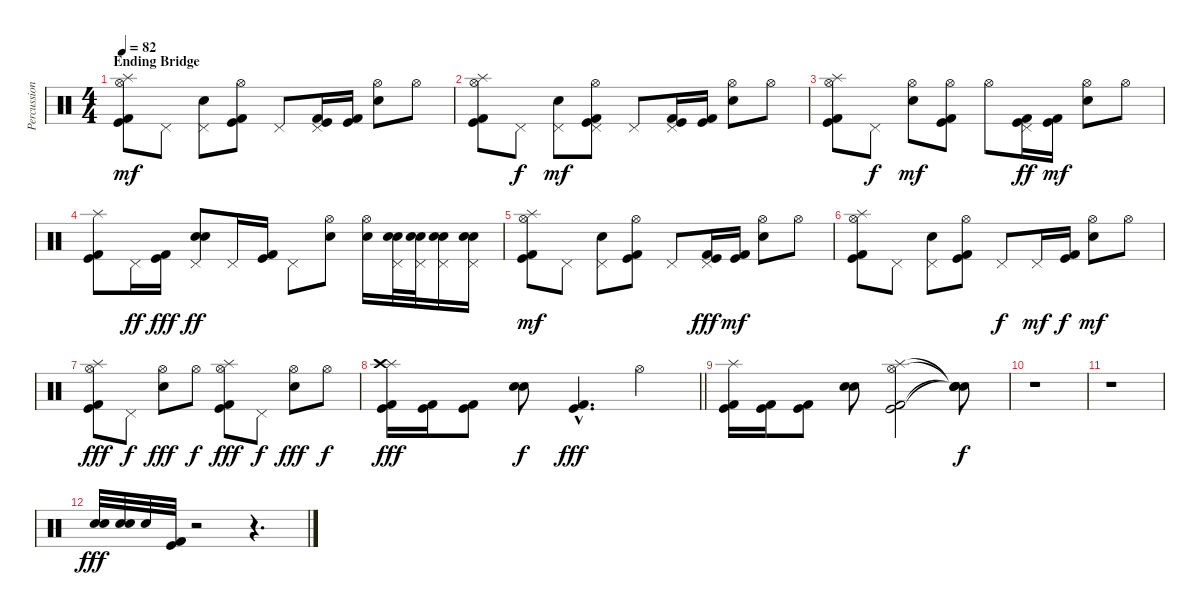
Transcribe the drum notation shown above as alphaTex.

\track ("Percussion" "Percussion") {instrument percussion}
\staff {score}
\articulation defaults
\ts (4 4)
\section ("" "Ending Bridge")
\tempo 82
\clef neutral
\ks c
("Splash (hit)" "Hi-Hat (open)" "Kick (hit)" "Kick (hit) 2").8{dy mf} "Pedal Hi-Hat (hit)".8 ("Snare (hit) 2" "Pedal Hi-Hat (hit)").8 ("Hi-Hat (open)" "Kick (hit)" "Kick (hit) 2").8 "Pedal Hi-Hat (hit)".8 ("Pedal Hi-Hat (hit)" "Kick (hit)" "Kick (hit) 2").16 ("Kick (hit)" "Kick (hit) 2").16 ("Snare (hit) 2" "Hi-Hat (open)").8 "Hi-Hat (open)".8 |
("Splash (hit)" "Hi-Hat (open)" "Kick (hit)" "Kick (hit) 2").8 "Pedal Hi-Hat (hit)".8{dy f} ("Snare (hit) 2" "Pedal Hi-Hat (hit)").8{dy mf} ("Hi-Hat (open)" "Pedal Hi-Hat (hit)" "Kick (hit)" "Kick (hit) 2").8 "Pedal Hi-Hat (hit)".8 ("Pedal Hi-Hat (hit)" "Kick (hit)" "Kick (hit) 2").16 ("Kick (hit)" "Kick (hit) 2").16 ("Snare (hit) 2" "Hi-Hat (open)").8 "Hi-Hat (open)".8 |
("Splash (hit)" "Hi-Hat (open)" "Kick (hit)" "Kick (hit) 2").8 "Pedal Hi-Hat (hit)".8{dy f} ("Snare (hit) 2" "Hi-Hat (open)").8{dy mf} ("Hi-Hat (open)" "Kick (hit)" "Kick (hit) 2").8 "Hi-Hat (open)".8 ("Pedal Hi-Hat (hit)" "Kick (hit)" "Kick (hit) 2").16{dy ff} ("Kick (hit)" "Kick (hit) 2").16{dy mf} ("Snare (hit) 2" "Hi-Hat (open)").8 "Hi-Hat (open)".8 |
("Splash (hit)" "Kick (hit)" "Kick (hit) 2").8 "Pedal Hi-Hat (hit)".16{dy ff} ("Kick (hit)" "Kick (hit) 2").16{dy fff} ("Snare (hit) 2" "Electric Snare (hit)" "Pedal Hi-Hat (hit)").8{dy ff} "Pedal Hi-Hat (hit)".16 ("Kick (hit)" "Kick (hit) 2").16 "Pedal Hi-Hat (hit)".8 ("Snare (hit) 2" "Hi-Hat (open)").8 ("Snare (hit) 2" "Hi-Hat (open)").16 ("Snare (hit) 2" "Electric Snare (hit)" "Pedal Hi-Hat (hit)").32 ("Snare (hit) 2" "Electric Snare (hit)" "Pedal Hi-Hat (hit)").32 ("Snare (hit) 2" "Electric Snare (hit)" "Pedal Hi-Hat (hit)").16 ("Snare (hit) 2" "Electric Snare (hit)" "Pedal Hi-Hat (hit)").16 |
("Splash (hit)" "Hi-Hat (open)" "Kick (hit)" "Kick (hit) 2").8{dy mf} "Pedal Hi-Hat (hit)".8 ("Snare (hit) 2" "Pedal Hi-Hat (hit)").8 ("Hi-Hat (open)" "Kick (hit)" "Kick (hit) 2").8 "Pedal Hi-Hat (hit)".8 ("Pedal Hi-Hat (hit)" "Kick (hit)" "Kick (hit) 2").16{dy fff} ("Kick (hit)" "Kick (hit) 2").16{dy mf} ("Snare (hit) 2" "Hi-Hat (open)").8 "Hi-Hat (open)".8 |
("Splash (hit)" "Hi-Hat (open)" "Kick (hit)" "Kick (hit) 2").8 "Pedal Hi-Hat (hit)".8 ("Snare (hit) 2" "Pedal Hi-Hat (hit)").8 ("Hi-Hat (open)" "Kick (hit)" "Kick (hit) 2").8 "Pedal Hi-Hat (hit)".8{dy f} "Pedal Hi-Hat (hit)".16{dy mf} ("Kick (hit)" "Kick (hit) 2").16{dy f} ("Snare (hit) 2" "Hi-Hat (open)").8{dy mf} "Hi-Hat (open)".8 |
("Splash (hit)" "Hi-Hat (open)" "Kick (hit)" "Kick (hit) 2").8{dy fff} "Pedal Hi-Hat (hit)".8{dy f} ("Snare (hit) 2" "Hi-Hat (open)").8{dy fff} "Hi-Hat (open)".8{dy f} ("Splash (hit)" "Hi-Hat (open)" "Kick (hit)" "Kick (hit) 2").8{dy fff} "Pedal Hi-Hat (hit)".8{dy f} ("Snare (hit) 2" "Hi-Hat (open)").8{dy fff} "Hi-Hat (open)".8{dy f} |
\barLineRight lightlight
("Splash (hit)" "Crash high (hit)" "Kick (hit)" "Kick (hit) 2").16{dy fff} ("Kick (hit)" "Kick (hit) 2").16 ("Kick (hit)" "Kick (hit) 2").8 ("Snare (hit) 2" "Electric Snare (hit)").8{dy f} ("Kick (hit)"{hac} "Kick (hit) 2"{hac}).4{d dy fff} "Hi-Hat (open)".4 |
("Splash (hit)" "Kick (hit)" "Kick (hit) 2").16 ("Kick (hit)" "Kick (hit) 2").16 ("Kick (hit)" "Kick (hit) 2").8 ("Snare (hit) 2" "Electric Snare (hit)").8 ("Splash (hit)" "Hi-Hat (open)" "Kick (hit)" "Kick (hit) 2").2 ("Snare (hit)"{t} "Snare (hit)"{t} "Snare (hit)"{t} "Snare (hit)"{t}).8{dy f} |
r.1 |
r.1 |
("Electric Snare (hit)" "Snare (hit) 2").32{dy fff} ("Electric Snare (hit)" "Snare (hit) 2").32 "Snare (hit) 2".32 ("Kick (hit)" "Kick (hit) 2").32 r.2 r.4{d}
